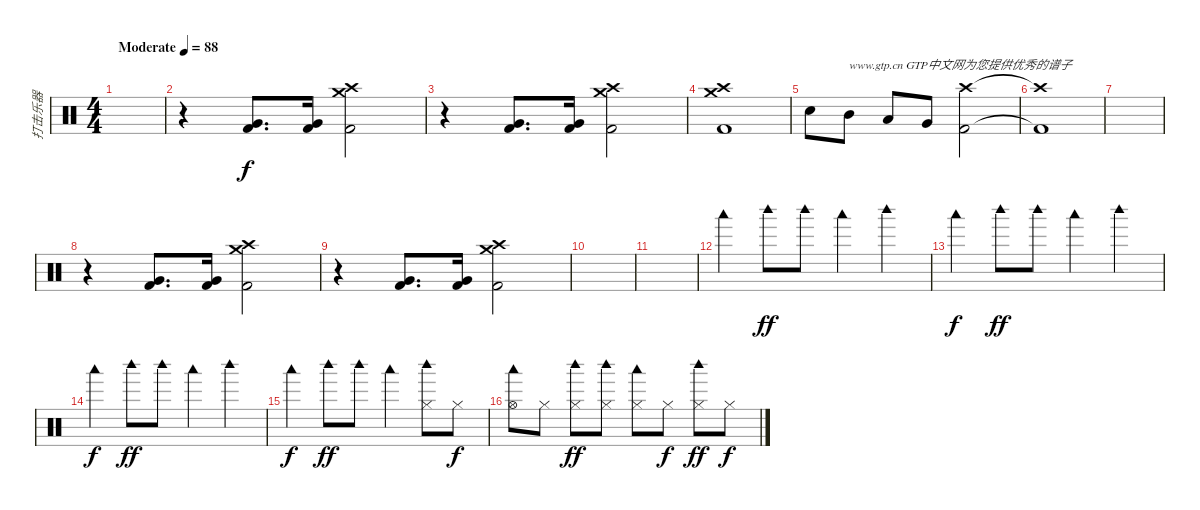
\track ("打击乐器" "打击乐器") {instrument percussion}
\staff {score}
\articulation defaults
\ts (4 4)
\tempo (88 "Moderate")
\clef neutral
\ks c
|
r.4 ("Very Low Tom (hit)" "Kick (hit) 2").8{d} ("Very Low Tom (hit)" "Kick (hit) 2").16 ("Crash high (hit)" "Crash medium (hit)" "Kick (hit) 2").2 |
r.4 ("Very Low Tom (hit)" "Kick (hit) 2").8{d} ("Very Low Tom (hit)" "Kick (hit) 2").16 ("Crash high (hit)" "Crash medium (hit)" "Kick (hit) 2").2 |
("Crash high (hit)" "Crash medium (hit)" "Kick (hit) 2").1 |
"Snare (hit) 2".8 "Mid Tom (hit)".8{txt "www.gtp.cn GTP中文网为您提供优秀的谱子"} "Low Tom (hit)".8 "Very Low Tom (hit)".8 ("Crash high (hit)" "Kick (hit) 2").2 |
("Crash high (hit)"{t} "Kick (hit) 2"{t}).1 |
|
r.4 ("Very Low Tom (hit)" "Kick (hit) 2").8{d} ("Very Low Tom (hit)" "Kick (hit) 2").16 ("Crash high (hit)" "Crash medium (hit)" "Kick (hit) 2").2 |
r.4 ("Very Low Tom (hit)" "Kick (hit) 2").8{d} ("Very Low Tom (hit)" "Kick (hit) 2").16 ("Crash high (hit)" "Crash medium (hit)" "Kick (hit) 2").2 |
|
|
"Woodblock low (hit)".4 "Woodblock high (hit)".8{dy ff} "Woodblock high (hit)".8 "Woodblock low (hit)".4 "Woodblock high (hit)".4 |
"Woodblock low (hit)".4{dy f} "Woodblock high (hit)".8{dy ff} "Woodblock high (hit)".8 "Woodblock low (hit)".4 "Woodblock high (hit)".4 |
"Woodblock low (hit)".4{dy f} "Woodblock high (hit)".8{dy ff} "Woodblock high (hit)".8 "Woodblock low (hit)".4 "Woodblock high (hit)".4 |
"Woodblock low (hit)".4{dy f} "Woodblock high (hit)".8{dy ff} "Woodblock high (hit)".8 "Woodblock low (hit)".4 ("Hi-Hat (closed)" "Woodblock high (hit)").8 "Hi-Hat (closed)".8{dy f} |
("Hi-Hat (open)" "Woodblock low (hit)").8 "Hi-Hat (closed)".8 ("Hi-Hat (closed)" "Woodblock high (hit)").8{dy ff} ("Hi-Hat (closed)" "Woodblock high (hit)").8 ("Hi-Hat (closed)" "Woodblock low (hit)").8 "Hi-Hat (closed)".8{dy f} ("Hi-Hat (closed)" "Woodblock high (hit)").8{dy ff} "Hi-Hat (closed)".8{dy f}
